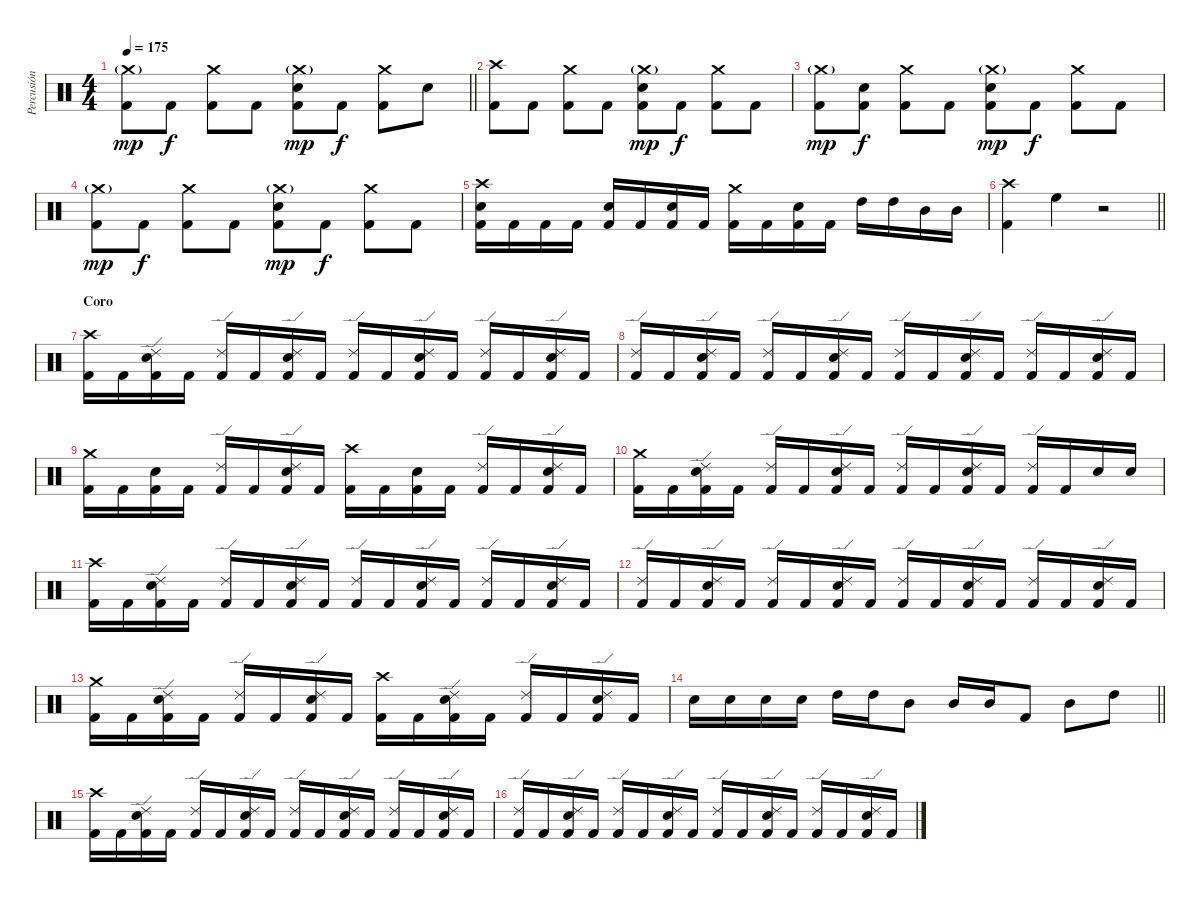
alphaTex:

\track ("Percusión" "Percusión") {instrument percussion}
\staff {score}
\articulation defaults
\ts (4 4)
\tempo 175
\clef neutral
\barLineRight lightlight
\ks c
("Crash medium (hit)"{g} "Kick (hit) 2").8{dy mp} "Kick (hit) 2".8{dy f} ("Crash medium (hit)" "Kick (hit) 2").8 "Kick (hit) 2".8 ("Crash medium (hit)"{g} "Snare (hit) 2" "Kick (hit) 2").8{dy mp} "Kick (hit) 2".8{dy f} ("Crash medium (hit)" "Kick (hit) 2").8 "Snare (hit) 2".8 |
\section ("" "")
("Crash high (hit)" "Kick (hit) 2").8 "Kick (hit) 2".8 ("Crash medium (hit)" "Kick (hit) 2").8 "Kick (hit) 2".8 ("Crash medium (hit)"{g} "Snare (hit) 2" "Kick (hit) 2").8{dy mp} "Kick (hit) 2".8{dy f} ("Crash medium (hit)" "Kick (hit) 2").8 "Kick (hit) 2".8 |
("Crash medium (hit)"{g} "Kick (hit) 2").8{dy mp} ("Snare (hit) 2" "Kick (hit) 2").8{dy f} ("Crash medium (hit)" "Kick (hit) 2").8 "Kick (hit) 2".8 ("Crash medium (hit)"{g} "Snare (hit) 2" "Kick (hit) 2").8{dy mp} "Kick (hit) 2".8{dy f} ("Crash medium (hit)" "Kick (hit) 2").8 "Kick (hit) 2".8 |
("Crash medium (hit)"{g} "Kick (hit) 2").8{dy mp} "Kick (hit) 2".8{dy f} ("Crash medium (hit)" "Kick (hit) 2").8 "Kick (hit) 2".8 ("Crash medium (hit)"{g} "Snare (hit) 2" "Kick (hit) 2").8{dy mp} "Kick (hit) 2".8{dy f} ("Crash medium (hit)" "Kick (hit) 2").8 "Kick (hit) 2".8 |
("Crash high (hit)" "Snare (hit) 2" "Kick (hit) 2").16 "Kick (hit) 2".16 "Kick (hit) 2".16 "Kick (hit) 2".16 ("Snare (hit) 2" "Kick (hit) 2").16 "Kick (hit) 2".16 ("Snare (hit) 2" "Kick (hit) 2").16 "Kick (hit) 2".16 ("Crash medium (hit)" "Kick (hit) 2").16 "Kick (hit) 2".16 ("Snare (hit) 2" "Kick (hit) 2").16 "Kick (hit) 2".16 "High Tom (hit)".16 "High Tom (hit)".16 "Mid Tom (hit)".16 "Mid Tom (hit)".16 |
\barLineRight lightlight
("Crash high (hit)" "Kick (hit) 2").4 "High Floor Tom (hit)".4 r.2 |
\section ("" "Coro")
("Crash high (hit)" "Kick (hit) 2").16 "Kick (hit) 2".16 ("Ride (edge) 2" "Snare (hit) 2" "Kick (hit) 2").16 "Kick (hit) 2".16 ("Ride (edge) 2" "Kick (hit) 2").16 "Kick (hit) 2".16 ("Ride (edge) 2" "Snare (hit) 2" "Kick (hit) 2").16 "Kick (hit) 2".16 ("Ride (edge) 2" "Kick (hit) 2").16 "Kick (hit) 2".16 ("Ride (edge) 2" "Snare (hit) 2" "Kick (hit) 2").16 "Kick (hit) 2".16 ("Ride (edge) 2" "Kick (hit) 2").16 "Kick (hit) 2".16 ("Ride (edge) 2" "Snare (hit) 2" "Kick (hit) 2").16 "Kick (hit) 2".16 |
("Ride (edge) 2" "Kick (hit) 2").16 "Kick (hit) 2".16 ("Ride (edge) 2" "Snare (hit) 2" "Kick (hit) 2").16 "Kick (hit) 2".16 ("Ride (edge) 2" "Kick (hit) 2").16 "Kick (hit) 2".16 ("Ride (edge) 2" "Snare (hit) 2" "Kick (hit) 2").16 "Kick (hit) 2".16 ("Ride (edge) 2" "Kick (hit) 2").16 "Kick (hit) 2".16 ("Ride (edge) 2" "Snare (hit) 2" "Kick (hit) 2").16 "Kick (hit) 2".16 ("Ride (edge) 2" "Kick (hit) 2").16 "Kick (hit) 2".16 ("Ride (edge) 2" "Snare (hit) 2" "Kick (hit) 2").16 "Kick (hit) 2".16 |
("Crash medium (hit)" "Kick (hit) 2").16 "Kick (hit) 2".16 ("Snare (hit) 2" "Kick (hit) 2").16 "Kick (hit) 2".16 ("Ride (edge) 2" "Kick (hit) 2").16 "Kick (hit) 2".16 ("Ride (edge) 2" "Snare (hit) 2" "Kick (hit) 2").16 "Kick (hit) 2".16 ("Crash high (hit)" "Kick (hit) 2").16 "Kick (hit) 2".16 ("Snare (hit) 2" "Kick (hit) 2").16 "Kick (hit) 2".16 ("Ride (edge) 2" "Kick (hit) 2").16 "Kick (hit) 2".16 ("Ride (edge) 2" "Snare (hit) 2" "Kick (hit) 2").16 "Kick (hit) 2".16 |
("Crash medium (hit)" "Kick (hit) 2").16 "Kick (hit) 2".16 ("Ride (edge) 2" "Snare (hit) 2" "Kick (hit) 2").16 "Kick (hit) 2".16 ("Ride (edge) 2" "Kick (hit) 2").16 "Kick (hit) 2".16 ("Ride (edge) 2" "Snare (hit) 2" "Kick (hit) 2").16 "Kick (hit) 2".16 ("Ride (edge) 2" "Kick (hit) 2").16 "Kick (hit) 2".16 ("Ride (edge) 2" "Snare (hit) 2" "Kick (hit) 2").16 "Kick (hit) 2".16 ("Ride (edge) 2" "Kick (hit) 2").16 "Kick (hit) 2".16 "Snare (hit) 2".16 "Snare (hit) 2".16 |
("Crash high (hit)" "Kick (hit) 2").16 "Kick (hit) 2".16 ("Ride (edge) 2" "Snare (hit) 2" "Kick (hit) 2").16 "Kick (hit) 2".16 ("Ride (edge) 2" "Kick (hit) 2").16 "Kick (hit) 2".16 ("Ride (edge) 2" "Snare (hit) 2" "Kick (hit) 2").16 "Kick (hit) 2".16 ("Ride (edge) 2" "Kick (hit) 2").16 "Kick (hit) 2".16 ("Ride (edge) 2" "Snare (hit) 2" "Kick (hit) 2").16 "Kick (hit) 2".16 ("Ride (edge) 2" "Kick (hit) 2").16 "Kick (hit) 2".16 ("Ride (edge) 2" "Snare (hit) 2" "Kick (hit) 2").16 "Kick (hit) 2".16 |
("Ride (edge) 2" "Kick (hit) 2").16 "Kick (hit) 2".16 ("Ride (edge) 2" "Snare (hit) 2" "Kick (hit) 2").16 "Kick (hit) 2".16 ("Ride (edge) 2" "Kick (hit) 2").16 "Kick (hit) 2".16 ("Ride (edge) 2" "Snare (hit) 2" "Kick (hit) 2").16 "Kick (hit) 2".16 ("Ride (edge) 2" "Kick (hit) 2").16 "Kick (hit) 2".16 ("Ride (edge) 2" "Snare (hit) 2" "Kick (hit) 2").16 "Kick (hit) 2".16 ("Ride (edge) 2" "Kick (hit) 2").16 "Kick (hit) 2".16 ("Ride (edge) 2" "Snare (hit) 2" "Kick (hit) 2").16 "Kick (hit) 2".16 |
("Crash medium (hit)" "Kick (hit) 2").16 "Kick (hit) 2".16 ("Ride (edge) 2" "Snare (hit) 2" "Kick (hit) 2").16 "Kick (hit) 2".16 ("Ride (edge) 2" "Kick (hit) 2").16 "Kick (hit) 2".16 ("Ride (edge) 2" "Snare (hit) 2" "Kick (hit) 2").16 "Kick (hit) 2".16 ("Crash high (hit)" "Kick (hit) 2").16 "Kick (hit) 2".16 ("Ride (edge) 2" "Snare (hit) 2" "Kick (hit) 2").16 "Kick (hit) 2".16 ("Ride (edge) 2" "Kick (hit) 2").16 "Kick (hit) 2".16 ("Ride (edge) 2" "Snare (hit) 2" "Kick (hit) 2").16 "Kick (hit) 2".16 |
\barLineRight lightlight "Snare (hit) 2".16 "Snare (hit) 2".16 "Snare (hit) 2".16 "Snare (hit) 2".16 "High Tom (hit)".16 "High Tom (hit)".16 "Mid Tom (hit)".8 "Mid Tom (hit)".16 "Mid Tom (hit)".16 "Kick (hit) 2".8 "Mid Tom (hit)".8 "High Tom (hit)".8
|
\section ("" "")
("Crash high (hit)" "Kick (hit) 2").16 "Kick (hit) 2".16 ("Ride (edge) 2" "Snare (hit) 2" "Kick (hit) 2").16 "Kick (hit) 2".16 ("Ride (edge) 2" "Kick (hit) 2").16 "Kick (hit) 2".16 ("Ride (edge) 2" "Snare (hit) 2" "Kick (hit) 2").16 "Kick (hit) 2".16 ("Ride (edge) 2" "Kick (hit) 2").16 "Kick (hit) 2".16 ("Ride (edge) 2" "Snare (hit) 2" "Kick (hit) 2").16 "Kick (hit) 2".16 ("Ride (edge) 2" "Kick (hit) 2").16 "Kick (hit) 2".16 ("Ride (edge) 2" "Snare (hit) 2" "Kick (hit) 2").16 "Kick (hit) 2".16 |
("Ride (edge) 2" "Kick (hit) 2").16 "Kick (hit) 2".16 ("Ride (edge) 2" "Snare (hit) 2" "Kick (hit) 2").16 "Kick (hit) 2".16 ("Ride (edge) 2" "Kick (hit) 2").16 "Kick (hit) 2".16 ("Ride (edge) 2" "Snare (hit) 2" "Kick (hit) 2").16 "Kick (hit) 2".16 ("Ride (edge) 2" "Kick (hit) 2").16 "Kick (hit) 2".16 ("Ride (edge) 2" "Snare (hit) 2" "Kick (hit) 2").16 "Kick (hit) 2".16 ("Ride (edge) 2" "Kick (hit) 2").16 "Kick (hit) 2".16 ("Ride (edge) 2" "Snare (hit) 2" "Kick (hit) 2").16 "Kick (hit) 2".16
